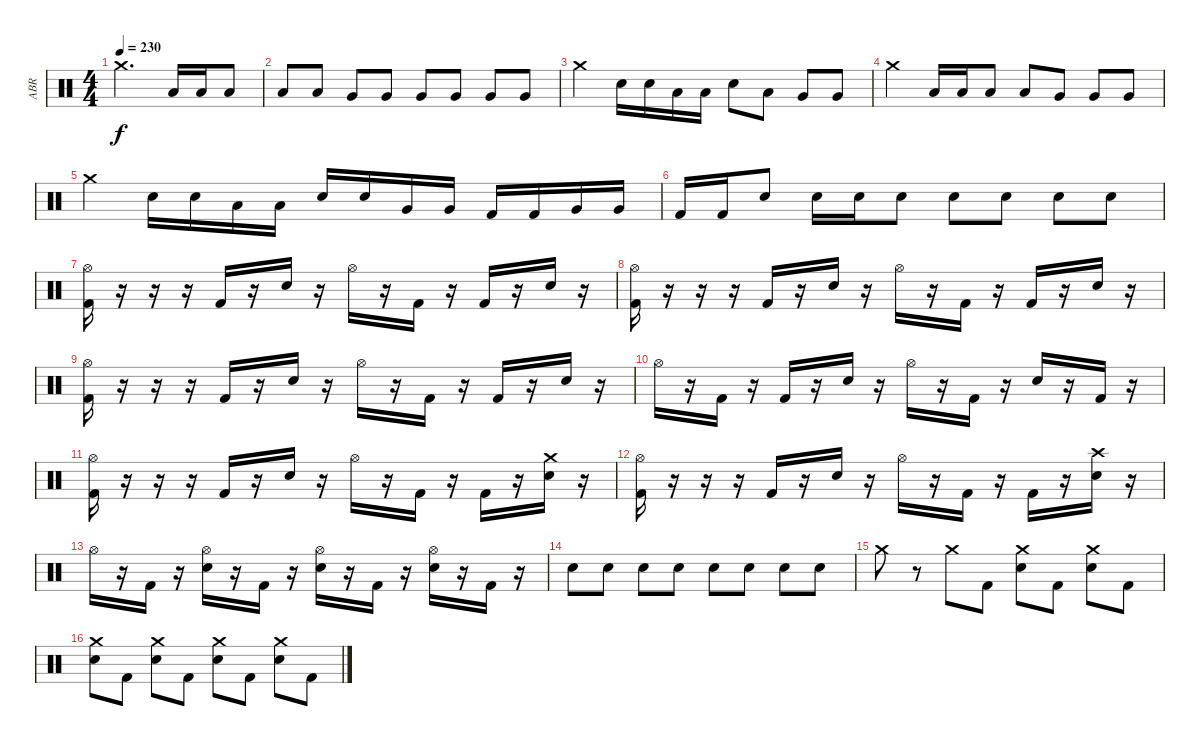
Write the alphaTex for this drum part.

\track ("ABR" "ABR") {instrument percussion}
\staff {score}
\articulation defaults
\ts (4 4)
\tempo 230
\clef neutral
\ks c "Crash medium (hit)".2{d dy f volume 16} "Low Tom (hit)".16{balance 1} "Low Tom (hit)".16 "Low Tom (hit)".8
|
"Low Tom (hit)".8{balance 8} "Low Tom (hit)".8 "Very Low Tom (hit)".8 "Very Low Tom (hit)".8 "Very Low Tom (hit)".8 "Very Low Tom (hit)".8 "Very Low Tom (hit)".8 "Very Low Tom (hit)".8 |
"Crash medium (hit)".4 "Snare (hit) 2".16 "Snare (hit) 2".16 "Low Tom (hit)".16 "Low Tom (hit)".16 "Snare (hit) 2".8 "Low Tom (hit)".8 "Very Low Tom (hit)".8 "Very Low Tom (hit)".8 |
"Crash medium (hit)".4 "Low Tom (hit)".16{balance 0} "Low Tom (hit)".16{balance 16} "Low Tom (hit)".8 "Low Tom (hit)".8 "Very Low Tom (hit)".8 "Very Low Tom (hit)".8 "Very Low Tom (hit)".8 |
"Crash medium (hit)".4{balance 8} "Snare (hit) 2".16 "Snare (hit) 2".16 "Low Tom (hit)".16 "Low Tom (hit)".16 "Snare (hit) 2".16 "Snare (hit) 2".16 "Very Low Tom (hit)".16 "Very Low Tom (hit)".16 "Kick (hit) 2".16 "Kick (hit) 2".16 "Very Low Tom (hit)".16 "Very Low Tom (hit)".16 |
"Kick (hit) 2".16 "Kick (hit) 2".16 "Snare (hit) 2".8 "Snare (hit) 2".16 "Snare (hit) 2".16 "Snare (hit) 2".8 "Snare (hit) 2".8 "Snare (hit) 2".8 "Snare (hit) 2".8 "Snare (hit) 2".8 |
("Hi-Hat (open)" "Kick (hit) 2").16 r.16 r.16 r.16 "Kick (hit) 2".16 r.16 "Snare (hit) 2".16 r.16 "Hi-Hat (open)".16 r.16 "Kick (hit) 2".16 r.16 "Kick (hit) 2".16 r.16 "Snare (hit) 2".16 r.16 |
("Hi-Hat (open)" "Kick (hit) 2").16 r.16 r.16 r.16 "Kick (hit) 2".16 r.16 "Snare (hit) 2".16 r.16 "Hi-Hat (open)".16 r.16 "Kick (hit) 2".16 r.16 "Kick (hit) 2".16 r.16 "Snare (hit) 2".16 r.16 |
("Hi-Hat (open)" "Kick (hit) 2").16 r.16 r.16 r.16 "Kick (hit) 2".16 r.16 "Snare (hit) 2".16 r.16 "Hi-Hat (open)".16 r.16 "Kick (hit) 2".16 r.16 "Kick (hit) 2".16 r.16 "Snare (hit) 2".16 r.16 |
"Hi-Hat (open)".16 r.16 "Kick (hit) 2".16 r.16 "Kick (hit) 2".16 r.16 "Snare (hit) 2".16 r.16 "Hi-Hat (open)".16 r.16 "Kick (hit) 2".16 r.16 "Snare (hit) 2".16 r.16 "Kick (hit) 2".16 r.16 |
("Hi-Hat (open)" "Kick (hit) 2").16 r.16 r.16 r.16 "Kick (hit) 2".16 r.16 "Snare (hit) 2".16 r.16 "Hi-Hat (open)".16 r.16 "Kick (hit) 2".16 r.16 "Kick (hit) 2".16 r.16 ("Crash medium (hit)" "Snare (hit) 2").16 r.16 |
("Hi-Hat (open)" "Kick (hit) 2").16 r.16 r.16 r.16 "Kick (hit) 2".16 r.16 "Snare (hit) 2".16 r.16 "Hi-Hat (open)".16 r.16 "Kick (hit) 2".16 r.16 "Kick (hit) 2".16 r.16 ("Crash high (hit)" "Snare (hit) 2").16 r.16 |
"Hi-Hat (open)".16 r.16 "Kick (hit) 2".16 r.16 ("Hi-Hat (open)" "Snare (hit) 2").16 r.16 "Kick (hit) 2".16 r.16 ("Hi-Hat (open)" "Snare (hit) 2").16 r.16 "Kick (hit) 2".16 r.16 ("Hi-Hat (open)" "Snare (hit) 2").16 r.16 "Kick (hit) 2".16 r.16 |
"Snare (hit) 2".8 "Snare (hit) 2".8 "Snare (hit) 2".8 "Snare (hit) 2".8 "Snare (hit) 2".8 "Snare (hit) 2".8 "Snare (hit) 2".8 "Snare (hit) 2".8 |
"Crash medium (hit)".8 r.8 "Crash medium (hit)".8 "Kick (hit) 2".8 ("Crash medium (hit)" "Snare (hit) 2").8 "Kick (hit) 2".8 ("Crash medium (hit)" "Snare (hit) 2").8 "Kick (hit) 2".8 |
("Crash medium (hit)" "Snare (hit) 2").8 "Kick (hit) 2".8 ("Crash medium (hit)" "Snare (hit) 2").8 "Kick (hit) 2".8 ("Crash medium (hit)" "Snare (hit) 2").8 "Kick (hit) 2".8 ("Crash medium (hit)" "Snare (hit) 2").8 "Kick (hit) 2".8
